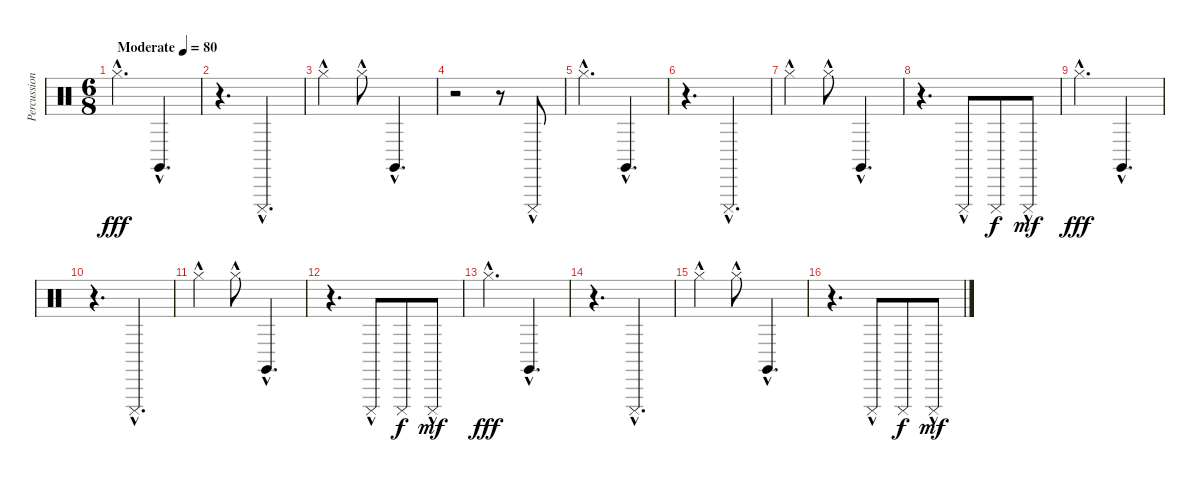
\track ("Percussion" "Percussion") {instrument percussion}
\staff {score}
\articulation defaults
\ts (6 8)
\tempo (80 "Moderate")
\clef neutral
\ks c "Hi-Hat (closed)"{hac}.4{d dy fff} "Claves (hit)"{hac}.4{d}
|
r.4{d} "Cuica (mute)"{hac}.4{d} |
"Hi-Hat (closed)"{hac}.4 "Hi-Hat (closed)"{hac}.8 "Claves (hit)"{hac}.4{d} |
r.2 r.8 "Cuica (mute)"{hac}.8 |
"Hi-Hat (closed)"{hac}.4{d} "Claves (hit)"{hac}.4{d} |
r.4{d} "Cuica (mute)"{hac}.4{d} |
"Hi-Hat (closed)"{hac}.4 "Hi-Hat (closed)"{hac}.8 "Claves (hit)"{hac}.4{d} |
r.4{d} "Cuica (mute)"{hac}.8 "Cuica (mute)".8{dy f} "Cuica (mute)"{hac}.8{dy mf} |
"Hi-Hat (closed)"{hac}.4{d dy fff} "Claves (hit)"{hac}.4{d} |
r.4{d} "Cuica (mute)"{hac}.4{d} |
"Hi-Hat (closed)"{hac}.4 "Hi-Hat (closed)"{hac}.8 "Claves (hit)"{hac}.4{d} |
r.4{d} "Cuica (mute)"{hac}.8 "Cuica (mute)".8{dy f} "Cuica (mute)"{hac}.8{dy mf} |
"Hi-Hat (closed)"{hac}.4{d dy fff} "Claves (hit)"{hac}.4{d} |
r.4{d} "Cuica (mute)"{hac}.4{d} |
"Hi-Hat (closed)"{hac}.4 "Hi-Hat (closed)"{hac}.8 "Claves (hit)"{hac}.4{d} |
r.4{d} "Cuica (mute)"{hac}.8 "Cuica (mute)".8{dy f} "Cuica (mute)"{hac}.8{dy mf}
